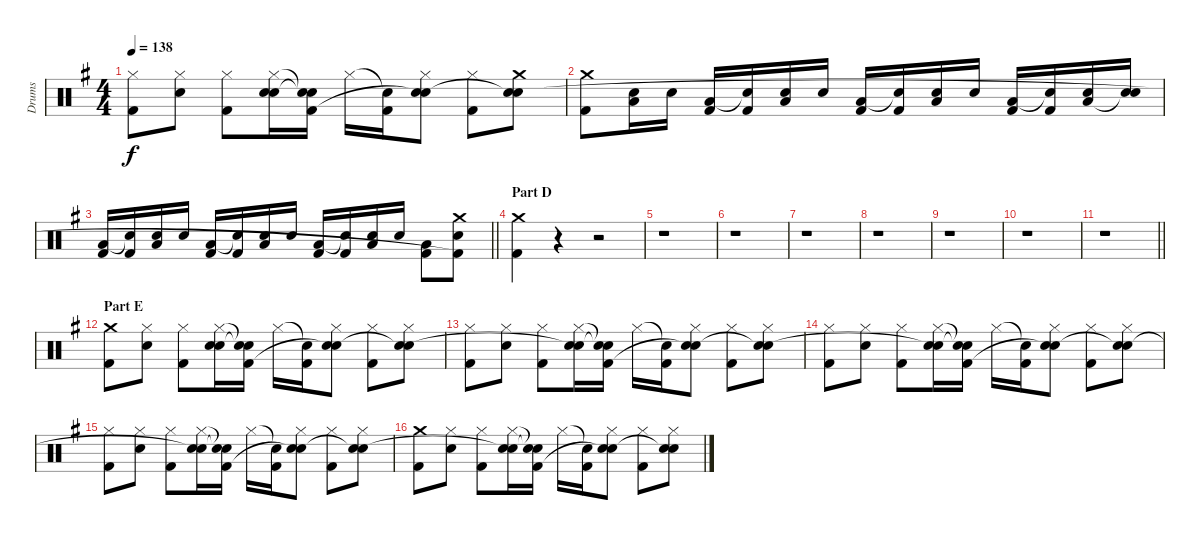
\track ("Drums" "Drums") {instrument percussion}
\staff {score}
\articulation defaults
\ts (4 4)
\tempo 138
\clef neutral
\ks g
("Hi-Hat (closed)" "Kick (hit) 2").8{dy f} ("Hi-Hat (closed)" "Electric Snare (hit)").8 ("Hi-Hat (closed)" "Kick (hit) 2").8 ("Hi-Hat (closed)" "Electric Snare (hit)" "Snare (hit)"{t}).16 ("Snare (hit)"{t} "Snare (hit)"{t} "Kick (hit) 2").16 "Hi-Hat (closed)".16 ("Snare (hit)"{t} "Kick (hit) 2").16 ("Hi-Hat (closed)" "Electric Snare (hit)" "Snare (hit)"{t}).8 ("Hi-Hat (closed)" "Kick (hit) 2").8 ("Crash medium (hit)" "Electric Snare (hit)" "Snare (hit)"{t}).8 |
("Crash medium (hit)" "Kick (hit) 2").8 ("Electric Snare (hit)" "Low Floor Tom (hit)").16 "Electric Snare (hit)".16 ("Low Floor Tom (hit)" "Kick (hit) 2").16 ("Snare (hit)"{t} "Kick (hit) 2").16 ("Electric Snare (hit)" "Low Floor Tom (hit)").16 "Electric Snare (hit)".16 ("Low Floor Tom (hit)" "Kick (hit) 2").16 ("Snare (hit)"{t} "Kick (hit) 2").16 ("Electric Snare (hit)" "Low Floor Tom (hit)").16 "Electric Snare (hit)".16 ("Low Floor Tom (hit)" "Kick (hit) 2").16 ("Snare (hit)"{t} "Kick (hit) 2").16 ("Electric Snare (hit)" "Low Floor Tom (hit)").16 ("Electric Snare (hit)" "Snare (hit)"{t}).16 |
\barLineRight lightlight
("Low Floor Tom (hit)" "Kick (hit) 2").16 ("Snare (hit)"{t} "Kick (hit) 2").16 ("Electric Snare (hit)" "Low Floor Tom (hit)").16 "Electric Snare (hit)".16 ("Low Floor Tom (hit)" "Kick (hit) 2").16 ("Snare (hit)"{t} "Kick (hit) 2").16 ("Electric Snare (hit)" "Low Floor Tom (hit)").16 "Electric Snare (hit)".16 ("Low Floor Tom (hit)" "Kick (hit) 2").16 ("Snare (hit)"{t} "Kick (hit) 2").16 ("Electric Snare (hit)" "Low Floor Tom (hit)").16 "Electric Snare (hit)".16 ("Low Floor Tom (hit)" "Kick (hit) 2").8 ("Crash medium (hit)" "Electric Snare (hit)" "Kick (hit) 2"{t}).8 |
\section ("" "Part D")
("Crash medium (hit)" "Kick (hit) 2").4 r.4 r.2 |
r.1 |
r.1 |
r.1 |
r.1 |
r.1 |
r.1 |
\barLineRight lightlight
r.1 |
\section ("" "Part E")
("Crash medium (hit)" "Kick (hit) 2").8 ("Hi-Hat (closed)" "Electric Snare (hit)").8 ("Hi-Hat (closed)" "Kick (hit) 2").8 ("Hi-Hat (closed)" "Electric Snare (hit)" "Snare (hit)").16 ("Snare (hit)"{t} "Snare (hit)"{t} "Kick (hit) 2").16 "Hi-Hat (closed)".16 ("Snare (hit)"{t} "Kick (hit) 2").16 ("Hi-Hat (closed)" "Electric Snare (hit)" "Snare (hit)"{t}).8 ("Hi-Hat (closed)" "Kick (hit) 2").8 ("Hi-Hat (closed)" "Electric Snare (hit)" "Snare (hit)"{t}).8 |
("Hi-Hat (closed)" "Kick (hit) 2").8 ("Hi-Hat (closed)" "Electric Snare (hit)").8 ("Hi-Hat (closed)" "Kick (hit) 2").8 ("Hi-Hat (closed)" "Electric Snare (hit)" "Snare (hit)"{t}).16 ("Snare (hit)"{t} "Snare (hit)"{t} "Kick (hit) 2").16 "Hi-Hat (closed)".16 ("Snare (hit)"{t} "Kick (hit) 2").16 ("Hi-Hat (closed)" "Electric Snare (hit)" "Snare (hit)"{t}).8 ("Hi-Hat (closed)" "Kick (hit) 2").8 ("Hi-Hat (closed)" "Electric Snare (hit)" "Snare (hit)"{t}).8 |
("Hi-Hat (closed)" "Kick (hit) 2").8 ("Hi-Hat (closed)" "Electric Snare (hit)").8 ("Hi-Hat (closed)" "Kick (hit) 2").8 ("Hi-Hat (closed)" "Electric Snare (hit)" "Snare (hit)"{t}).16 ("Snare (hit)"{t} "Snare (hit)"{t} "Kick (hit) 2").16 "Hi-Hat (closed)".16 ("Snare (hit)"{t} "Kick (hit) 2").16 ("Hi-Hat (closed)" "Electric Snare (hit)" "Snare (hit)"{t}).8 ("Hi-Hat (closed)" "Kick (hit) 2").8 ("Hi-Hat (closed)" "Electric Snare (hit)" "Snare (hit)"{t}).8 |
("Hi-Hat (closed)" "Kick (hit) 2").8 ("Hi-Hat (closed)" "Electric Snare (hit)").8 ("Hi-Hat (closed)" "Kick (hit) 2").8 ("Hi-Hat (closed)" "Electric Snare (hit)" "Snare (hit)"{t}).16 ("Snare (hit)"{t} "Snare (hit)"{t} "Kick (hit) 2").16 "Hi-Hat (closed)".16 ("Snare (hit)"{t} "Kick (hit) 2").16 ("Hi-Hat (closed)" "Electric Snare (hit)" "Snare (hit)"{t}).8 ("Hi-Hat (closed)" "Kick (hit) 2").8 ("Hi-Hat (closed)" "Electric Snare (hit)" "Snare (hit)"{t}).8 |
("Crash medium (hit)" "Kick (hit) 2").8 ("Hi-Hat (closed)" "Electric Snare (hit)").8 ("Hi-Hat (closed)" "Kick (hit) 2").8 ("Hi-Hat (closed)" "Electric Snare (hit)" "Snare (hit)"{t}).16 ("Snare (hit)"{t} "Snare (hit)"{t} "Kick (hit) 2").16 "Hi-Hat (closed)".16 ("Snare (hit)"{t} "Kick (hit) 2").16 ("Hi-Hat (closed)" "Electric Snare (hit)" "Snare (hit)"{t}).8 ("Hi-Hat (closed)" "Kick (hit) 2").8 ("Hi-Hat (closed)" "Electric Snare (hit)" "Snare (hit)"{t}).8
